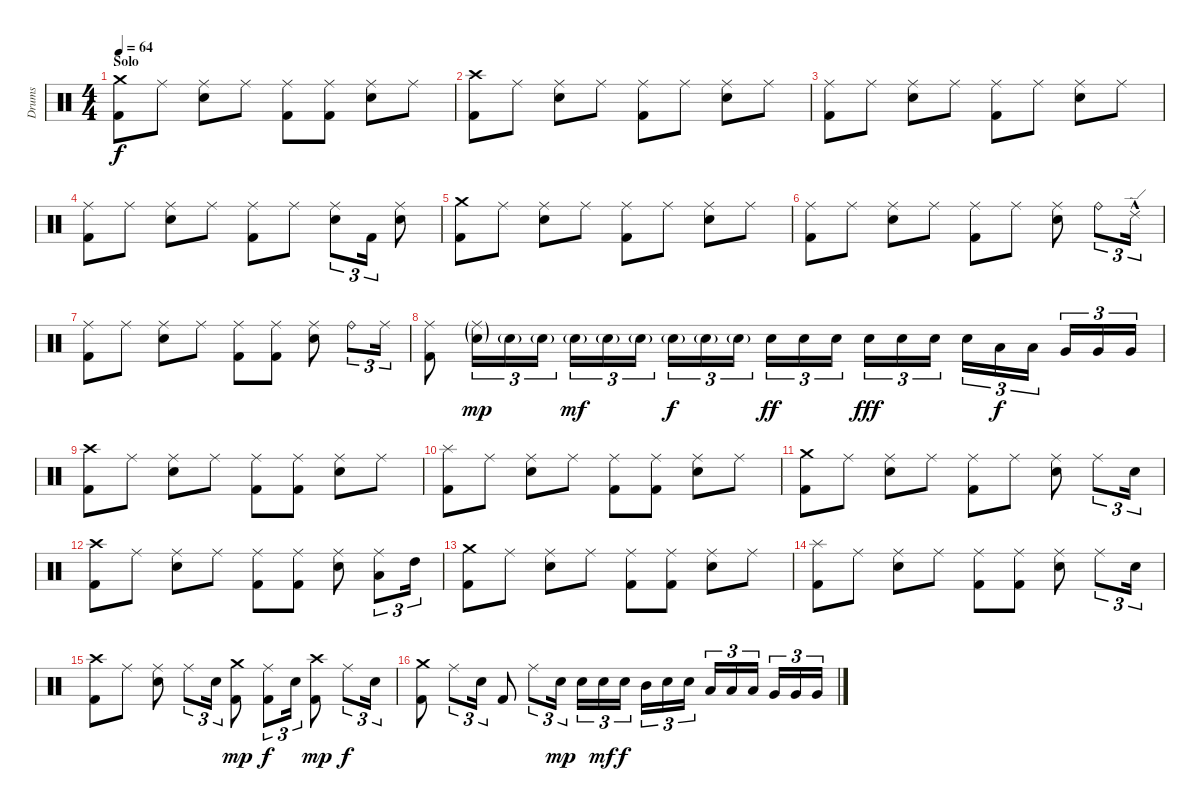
\track ("Drums" "Drums") {instrument percussion}
\staff {score}
\articulation defaults
\ts (4 4)
\section ("" "Solo")
\tempo 64
\clef neutral
\ks c
("Crash medium (hit)" "Kick (hit) 2").8{dy f} "Ride (middle)".8 ("Ride (middle)" "Electric Snare (hit)").8 "Ride (middle)".8 ("Ride (middle)" "Kick (hit) 2").8 ("Ride (middle)" "Kick (hit) 2").8 ("Ride (middle)" "Electric Snare (hit)").8 "Ride (middle)".8 |
("Crash high (hit)" "Kick (hit) 2").8 "Ride (middle)".8 ("Ride (middle)" "Electric Snare (hit)").8 "Ride (middle)".8 ("Ride (middle)" "Kick (hit) 2").8 "Ride (middle)".8 ("Ride (middle)" "Electric Snare (hit)").8 "Ride (middle)".8 |
("Ride (middle)" "Kick (hit) 2").8 "Ride (middle)".8 ("Ride (middle)" "Electric Snare (hit)").8 "Ride (middle)".8 ("Ride (middle)" "Kick (hit) 2").8 "Ride (middle)".8 ("Ride (middle)" "Electric Snare (hit)").8 "Ride (middle)".8 |
("Ride (middle)" "Kick (hit) 2").8 "Ride (middle)".8 ("Ride (middle)" "Electric Snare (hit)").8 "Ride (middle)".8 ("Ride (middle)" "Kick (hit) 2").8 "Ride (middle)".8 ("Ride (middle)" "Electric Snare (hit)").8{tu (3 2)} "Kick (hit) 2".16{tu (3 2)} ("Ride (middle)" "Electric Snare (hit)").8 |
("Crash medium (hit)" "Kick (hit) 2").8 "Ride (middle)".8 ("Ride (middle)" "Electric Snare (hit)").8 "Ride (middle)".8 ("Ride (middle)" "Kick (hit) 2").8 "Ride (middle)".8 ("Ride (middle)" "Electric Snare (hit)").8 "Ride (middle)".8 |
("Ride (middle)" "Kick (hit) 2").8 "Ride (middle)".8 ("Ride (middle)" "Electric Snare (hit)").8 "Ride (middle)".8 ("Ride (middle)" "Kick (hit) 2").8 "Ride (middle)".8 ("Ride (middle)" "Electric Snare (hit)").8 "Ride (bell)".8{tu (3 2)} "Ride (edge) 2"{hac}.16{tu (3 2)} |
("Ride (middle)" "Kick (hit) 2").8 "Ride (middle)".8 ("Ride (middle)" "Electric Snare (hit)").8 "Ride (middle)".8 ("Ride (middle)" "Kick (hit) 2").8 ("Ride (middle)" "Kick (hit) 2").8 ("Ride (middle)" "Electric Snare (hit)").8 "Ride (bell)".8{tu (3 2)} "Ride (middle)".16{tu (3 2)} |
("Ride (middle)" "Kick (hit) 2").8 ("Ride (middle)"{g} "Electric Snare (hit)"{g}).16{tu (3 2) dy mp} "Electric Snare (hit)"{g}.16{tu (3 2)} "Electric Snare (hit)"{g}.16{tu (3 2)} "Electric Snare (hit)"{g}.16{tu (3 2) dy mf} "Electric Snare (hit)"{g}.16{tu (3 2)} "Electric Snare (hit)"{g}.16{tu (3 2)} "Electric Snare (hit)"{g}.16{tu (3 2) dy f} "Electric Snare (hit)"{g}.16{tu (3 2)} "Electric Snare (hit)"{g}.16{tu (3 2)} "Electric Snare (hit)".16{tu (3 2) dy ff} "Electric Snare (hit)".16{tu (3 2)} "Electric Snare (hit)".16{tu (3 2)} "Electric Snare (hit)".16{tu (3 2) dy fff} "Electric Snare (hit)".16{tu (3 2)} "Electric Snare (hit)".16{tu (3 2)} "Electric Snare (hit)".16{tu (3 2)} "Low Tom (hit)".16{tu (3 2) dy f} "Low Tom (hit)".16{tu (3 2)} "Very Low Tom (hit)".16{tu (3 2)} "Very Low Tom (hit)".16{tu (3 2)} "Very Low Tom (hit)".16{tu (3 2)} |
("Crash high (hit)" "Kick (hit) 2").8 "Ride (middle)".8 ("Ride (middle)" "Electric Snare (hit)").8 "Ride (middle)".8 ("Ride (middle)" "Kick (hit) 2").8 ("Ride (middle)" "Kick (hit) 2").8 ("Ride (middle)" "Electric Snare (hit)").8 "Ride (middle)".8 |
("Splash (hit)" "Kick (hit) 2").8 "Ride (middle)".8 ("Ride (middle)" "Electric Snare (hit)").8 "Ride (middle)".8 ("Ride (middle)" "Kick (hit) 2").8 ("Ride (middle)" "Kick (hit) 2").8 ("Ride (middle)" "Electric Snare (hit)").8 "Ride (middle)".8 |
("Crash medium (hit)" "Kick (hit) 2").8 "Ride (middle)".8 ("Ride (middle)" "Electric Snare (hit)").8 "Ride (middle)".8 ("Ride (middle)" "Kick (hit) 2").8 "Ride (middle)".8 ("Ride (middle)" "Electric Snare (hit)").8 "Ride (middle)".8{tu (3 2)} "Electric Snare (hit)".16{tu (3 2)} |
("Crash high (hit)" "Kick (hit) 2").8 "Ride (middle)".8 ("Ride (middle)" "Electric Snare (hit)").8 "Ride (middle)".8 ("Ride (middle)" "Kick (hit) 2").8 ("Ride (middle)" "Kick (hit) 2").8 ("Ride (middle)" "Electric Snare (hit)").8 ("Ride (middle)" "Low Tom (hit)").8{tu (3 2)} "High Tom (hit)".16{tu (3 2)} |
("Crash medium (hit)" "Kick (hit) 2").8 "Ride (middle)".8 ("Ride (middle)" "Electric Snare (hit)").8 "Ride (middle)".8 ("Ride (middle)" "Kick (hit) 2").8 ("Ride (middle)" "Kick (hit) 2").8 ("Ride (middle)" "Electric Snare (hit)").8 "Ride (middle)".8 |
("Splash (hit)" "Kick (hit) 2").8 "Ride (middle)".8 ("Ride (middle)" "Electric Snare (hit)").8 "Ride (middle)".8 ("Ride (middle)" "Kick (hit) 2").8 ("Ride (middle)" "Kick (hit) 2").8 ("Ride (middle)" "Electric Snare (hit)").8 "Ride (middle)".8{tu (3 2)} "Electric Snare (hit)".16{tu (3 2)} |
("Crash high (hit)" "Kick (hit) 2").8 "Ride (middle)".8 ("Ride (middle)" "Electric Snare (hit)").8 "Ride (middle)".8{tu (3 2)} "Electric Snare (hit)".16{tu (3 2)} ("Crash medium (hit)" "Kick (hit) 2").8{dy mp} ("Ride (middle)" "Kick (hit) 2").8{tu (3 2) dy f} "Electric Snare (hit)".16{tu (3 2)} ("Crash high (hit)" "Kick (hit) 2").8{dy mp} "Ride (middle)".8{tu (3 2) dy f} "Electric Snare (hit)".16{tu (3 2)} |
("Crash medium (hit)" "Kick (hit) 2").8 "Ride (middle)".8{tu (3 2)} "Electric Snare (hit)".16{tu (3 2)} "Kick (hit) 2".8 "Ride (middle)".8{tu (3 2)} "Electric Snare (hit)".16{tu (3 2) dy mp} "Electric Snare (hit)".16{tu (3 2)} "Electric Snare (hit)".16{tu (3 2) dy mf} "Electric Snare (hit)".16{tu (3 2) dy f} "Mid Tom (hit)".16{tu (3 2)} "Electric Snare (hit)".16{tu (3 2)} "Electric Snare (hit)".16{tu (3 2)} "Low Tom (hit)".16{tu (3 2)} "Low Tom (hit)".16{tu (3 2)} "Low Tom (hit)".16{tu (3 2)} "Very Low Tom (hit)".16{tu (3 2)} "Very Low Tom (hit)".16{tu (3 2)} "Very Low Tom (hit)".16{tu (3 2)}
